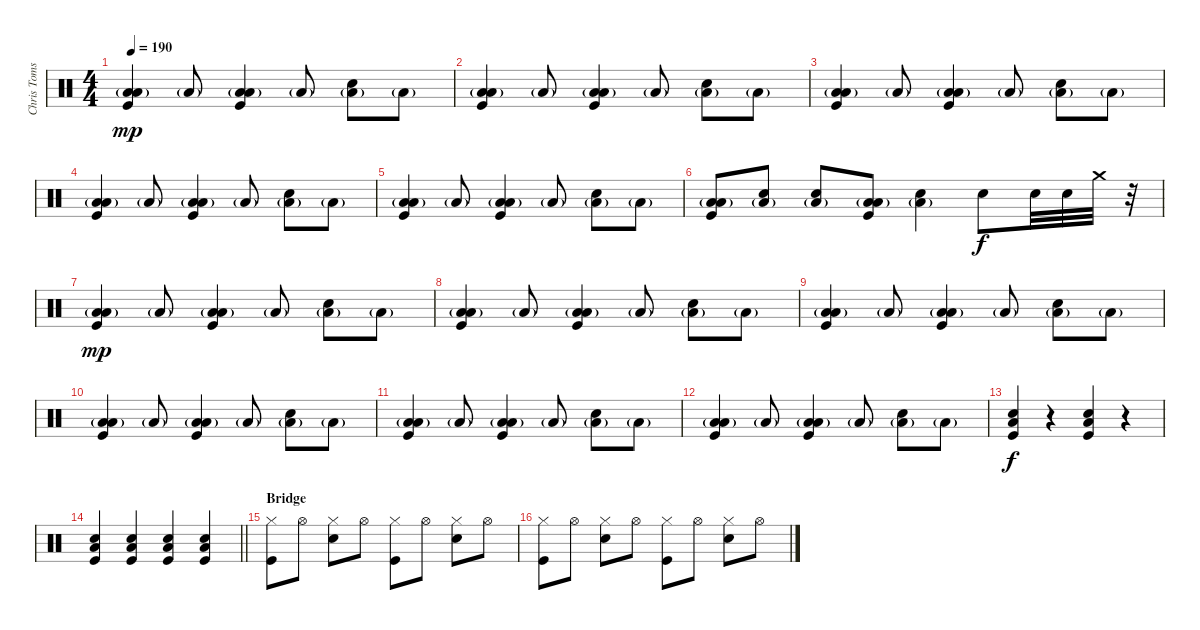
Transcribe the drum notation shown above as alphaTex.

\track ("Chris Tomson - Drums" "Chris Toms") {instrument percussion}
\staff {score}
\articulation defaults
\ts (4 4)
\tempo 190
\clef neutral
\ks c
("Kick (hit)" "Low Tom (hit)" "Low Floor Tom (hit)"{g}).4{dy mp} "Low Floor Tom (hit)"{g}.8 ("Kick (hit)" "Low Tom (hit)" "Low Floor Tom (hit)"{g}).4 "Low Floor Tom (hit)"{g}.8 ("Snare (hit) 2" "Low Floor Tom (hit)"{g}).8 "Low Floor Tom (hit)"{g}.8 |
("Kick (hit)" "Low Tom (hit)" "Low Floor Tom (hit)"{g}).4 "Low Floor Tom (hit)"{g}.8 ("Kick (hit)" "Low Tom (hit)" "Low Floor Tom (hit)"{g}).4 "Low Floor Tom (hit)"{g}.8 ("Snare (hit) 2" "Low Floor Tom (hit)"{g}).8 "Low Floor Tom (hit)"{g}.8 |
("Kick (hit)" "Low Tom (hit)" "Low Floor Tom (hit)"{g}).4 "Low Floor Tom (hit)"{g}.8 ("Kick (hit)" "Low Tom (hit)" "Low Floor Tom (hit)"{g}).4 "Low Floor Tom (hit)"{g}.8 ("Snare (hit) 2" "Low Floor Tom (hit)"{g}).8 "Low Floor Tom (hit)"{g}.8 |
("Kick (hit)" "Low Tom (hit)" "Low Floor Tom (hit)"{g}).4 "Low Floor Tom (hit)"{g}.8 ("Kick (hit)" "Low Tom (hit)" "Low Floor Tom (hit)"{g}).4 "Low Floor Tom (hit)"{g}.8 ("Snare (hit) 2" "Low Floor Tom (hit)"{g}).8 "Low Floor Tom (hit)"{g}.8 |
("Kick (hit)" "Low Tom (hit)" "Low Floor Tom (hit)"{g}).4 "Low Floor Tom (hit)"{g}.8 ("Kick (hit)" "Low Tom (hit)" "Low Floor Tom (hit)"{g}).4 "Low Floor Tom (hit)"{g}.8 ("Snare (hit) 2" "Low Floor Tom (hit)"{g}).8 "Low Floor Tom (hit)"{g}.8 |
("Kick (hit)" "Low Tom (hit)" "Low Floor Tom (hit)"{g}).8 ("Snare (hit) 2" "Low Floor Tom (hit)"{g}).8 ("Snare (hit) 2" "Low Floor Tom (hit)"{g}).8 ("Kick (hit)" "Low Tom (hit)" "Low Floor Tom (hit)"{g}).8 ("Snare (hit) 2" "Low Floor Tom (hit)"{g}).4 "Snare (hit) 2".8{dy f} "Snare (hit) 2".32 "Snare (hit) 2".32 "Crash medium (hit)".32 r.32 |
("Kick (hit)" "Low Tom (hit)" "Low Floor Tom (hit)"{g}).4{dy mp} "Low Floor Tom (hit)"{g}.8 ("Kick (hit)" "Low Tom (hit)" "Low Floor Tom (hit)"{g}).4 "Low Floor Tom (hit)"{g}.8 ("Snare (hit) 2" "Low Floor Tom (hit)"{g}).8 "Low Floor Tom (hit)"{g}.8 |
("Kick (hit)" "Low Tom (hit)" "Low Floor Tom (hit)"{g}).4 "Low Floor Tom (hit)"{g}.8 ("Kick (hit)" "Low Tom (hit)" "Low Floor Tom (hit)"{g}).4 "Low Floor Tom (hit)"{g}.8 ("Snare (hit) 2" "Low Floor Tom (hit)"{g}).8 "Low Floor Tom (hit)"{g}.8 |
("Kick (hit)" "Low Tom (hit)" "Low Floor Tom (hit)"{g}).4 "Low Floor Tom (hit)"{g}.8 ("Kick (hit)" "Low Tom (hit)" "Low Floor Tom (hit)"{g}).4 "Low Floor Tom (hit)"{g}.8 ("Snare (hit) 2" "Low Floor Tom (hit)"{g}).8 "Low Floor Tom (hit)"{g}.8 |
("Kick (hit)" "Low Tom (hit)" "Low Floor Tom (hit)"{g}).4 "Low Floor Tom (hit)"{g}.8 ("Kick (hit)" "Low Tom (hit)" "Low Floor Tom (hit)"{g}).4 "Low Floor Tom (hit)"{g}.8 ("Snare (hit) 2" "Low Floor Tom (hit)"{g}).8 "Low Floor Tom (hit)"{g}.8 |
("Kick (hit)" "Low Tom (hit)" "Low Floor Tom (hit)"{g}).4 "Low Floor Tom (hit)"{g}.8 ("Kick (hit)" "Low Tom (hit)" "Low Floor Tom (hit)"{g}).4 "Low Floor Tom (hit)"{g}.8 ("Snare (hit) 2" "Low Floor Tom (hit)"{g}).8 "Low Floor Tom (hit)"{g}.8 |
("Kick (hit)" "Low Tom (hit)" "Low Floor Tom (hit)"{g}).4 "Low Floor Tom (hit)"{g}.8 ("Kick (hit)" "Low Tom (hit)" "Low Floor Tom (hit)"{g}).4 "Low Floor Tom (hit)"{g}.8 ("Snare (hit) 2" "Low Floor Tom (hit)"{g}).8 "Low Floor Tom (hit)"{g}.8 |
("Kick (hit)" "Snare (hit) 2" "Low Floor Tom (hit)").4{dy f} r.4 ("Kick (hit)" "Snare (hit) 2" "Low Floor Tom (hit)").4 r.4 |
\barLineRight lightlight
("Kick (hit)" "Snare (hit) 2" "Low Floor Tom (hit)").4 ("Kick (hit)" "Snare (hit) 2" "Low Floor Tom (hit)").4 ("Kick (hit)" "Snare (hit) 2" "Low Floor Tom (hit)").4 ("Kick (hit)" "Snare (hit) 2" "Low Floor Tom (hit)").4 |
\section ("" "Bridge")
("Kick (hit)" "Hi-Hat (closed)").8 "Hi-Hat (open)".8 ("Snare (hit) 2" "Hi-Hat (closed)").8 "Hi-Hat (open)".8 ("Kick (hit)" "Hi-Hat (closed)").8 "Hi-Hat (open)".8 ("Snare (hit) 2" "Hi-Hat (closed)").8 "Hi-Hat (open)".8 |
("Kick (hit)" "Hi-Hat (closed)").8 "Hi-Hat (open)".8 ("Snare (hit) 2" "Hi-Hat (closed)").8 "Hi-Hat (open)".8 ("Kick (hit)" "Hi-Hat (closed)").8 "Hi-Hat (open)".8 ("Snare (hit) 2" "Hi-Hat (closed)").8 "Hi-Hat (open)".8
